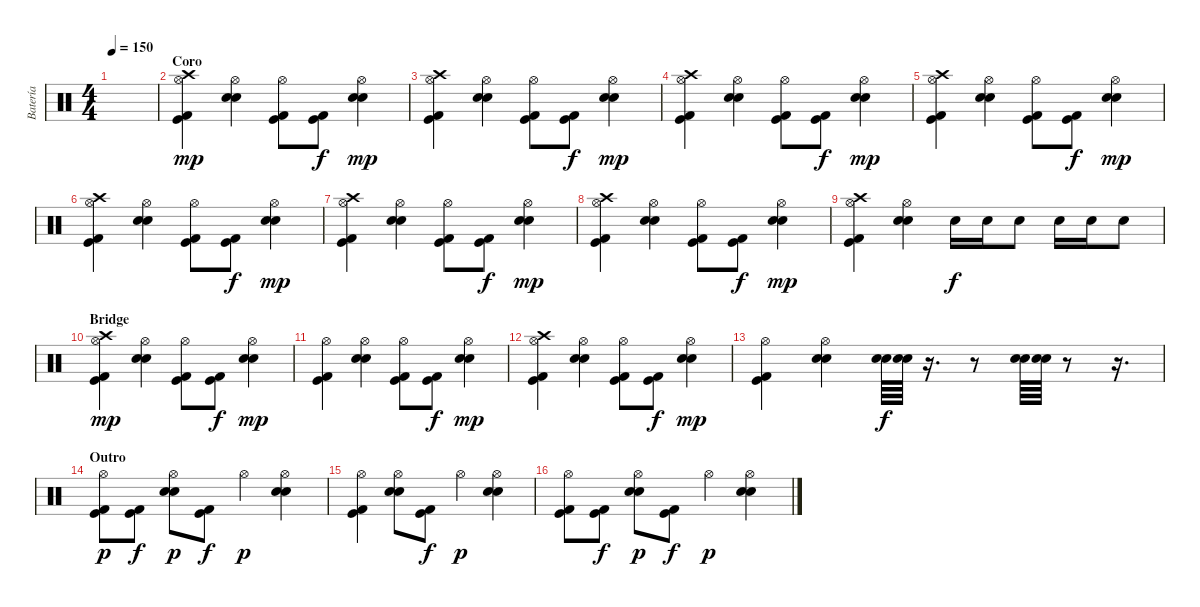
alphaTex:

\track ("Batería" "Batería") {instrument percussion}
\staff {score}
\articulation defaults
\ts (4 4)
\tempo 150
\clef neutral
\ks c
|
\section ("" "Coro")
("Crash high (hit)" "Hi-Hat (open)" "Kick (hit)" "Kick (hit) 2").4{dy mp} ("Hi-Hat (open)" "Snare (hit) 2" "Electric Snare (hit)").4 ("Hi-Hat (open)" "Kick (hit)" "Kick (hit) 2").8 ("Kick (hit) 2" "Kick (hit)").8{dy f} ("Hi-Hat (open)" "Snare (hit) 2" "Electric Snare (hit)").4{dy mp} |
("Crash high (hit)" "Hi-Hat (open)" "Kick (hit)" "Kick (hit) 2").4 ("Hi-Hat (open)" "Snare (hit) 2" "Electric Snare (hit)").4 ("Hi-Hat (open)" "Kick (hit)" "Kick (hit) 2").8 ("Kick (hit) 2" "Kick (hit)").8{dy f} ("Hi-Hat (open)" "Snare (hit) 2" "Electric Snare (hit)").4{dy mp} |
("Crash high (hit)" "Hi-Hat (open)" "Kick (hit)" "Kick (hit) 2").4 ("Hi-Hat (open)" "Snare (hit) 2" "Electric Snare (hit)").4 ("Hi-Hat (open)" "Kick (hit)" "Kick (hit) 2").8 ("Kick (hit)" "Kick (hit) 2").8{dy f} ("Hi-Hat (open)" "Snare (hit) 2" "Electric Snare (hit)").4{dy mp} |
("Crash high (hit)" "Hi-Hat (open)" "Kick (hit)" "Kick (hit) 2").4 ("Hi-Hat (open)" "Snare (hit) 2" "Electric Snare (hit)").4 ("Hi-Hat (open)" "Kick (hit)" "Kick (hit) 2").8 ("Kick (hit)" "Kick (hit) 2").8{dy f} ("Hi-Hat (open)" "Snare (hit) 2" "Electric Snare (hit)").4{dy mp} |
("Crash high (hit)" "Hi-Hat (open)" "Kick (hit)" "Kick (hit) 2").4 ("Hi-Hat (open)" "Snare (hit) 2" "Electric Snare (hit)").4 ("Hi-Hat (open)" "Kick (hit)" "Kick (hit) 2").8 ("Kick (hit) 2" "Kick (hit)").8{dy f} ("Hi-Hat (open)" "Snare (hit) 2" "Electric Snare (hit)").4{dy mp} |
("Crash high (hit)" "Hi-Hat (open)" "Kick (hit)" "Kick (hit) 2").4 ("Hi-Hat (open)" "Snare (hit) 2" "Electric Snare (hit)").4 ("Hi-Hat (open)" "Kick (hit)" "Kick (hit) 2").8 ("Kick (hit) 2" "Kick (hit)").8{dy f} ("Hi-Hat (open)" "Snare (hit) 2" "Electric Snare (hit)").4{dy mp} |
("Crash high (hit)" "Hi-Hat (open)" "Kick (hit)" "Kick (hit) 2").4 ("Hi-Hat (open)" "Snare (hit) 2" "Electric Snare (hit)").4 ("Hi-Hat (open)" "Kick (hit)" "Kick (hit) 2").8 ("Kick (hit)" "Kick (hit) 2").8{dy f} ("Hi-Hat (open)" "Snare (hit) 2" "Electric Snare (hit)").4{dy mp} |
("Crash high (hit)" "Hi-Hat (open)" "Kick (hit)" "Kick (hit) 2").4 ("Hi-Hat (open)" "Snare (hit) 2" "Electric Snare (hit)").4 "Electric Snare (hit)".16{dy f} "Electric Snare (hit)".16 "Electric Snare (hit)".8 "Electric Snare (hit)".16 "Electric Snare (hit)".16 "Electric Snare (hit)".8 |
\section ("" "Bridge")
("Crash high (hit)" "Hi-Hat (open)" "Kick (hit)" "Kick (hit) 2").4{dy mp} ("Hi-Hat (open)" "Snare (hit) 2" "Electric Snare (hit)").4 ("Hi-Hat (open)" "Kick (hit)" "Kick (hit) 2").8 ("Kick (hit) 2" "Kick (hit)").8{dy f} ("Hi-Hat (open)" "Snare (hit) 2" "Electric Snare (hit)").4{dy mp} |
("Hi-Hat (open)" "Kick (hit)" "Kick (hit) 2").4 ("Hi-Hat (open)" "Snare (hit) 2" "Electric Snare (hit)").4 ("Hi-Hat (open)" "Kick (hit)" "Kick (hit) 2").8 ("Kick (hit) 2" "Kick (hit)").8{dy f} ("Hi-Hat (open)" "Snare (hit) 2" "Electric Snare (hit)").4{dy mp} |
("Crash high (hit)" "Hi-Hat (open)" "Kick (hit)" "Kick (hit) 2").4 ("Hi-Hat (open)" "Snare (hit) 2" "Electric Snare (hit)").4 ("Hi-Hat (open)" "Kick (hit)" "Kick (hit) 2").8 ("Kick (hit)" "Kick (hit) 2").8{dy f} ("Hi-Hat (open)" "Snare (hit) 2" "Electric Snare (hit)").4{dy mp} |
("Hi-Hat (open)" "Kick (hit)" "Kick (hit) 2").4 ("Hi-Hat (open)" "Snare (hit) 2" "Electric Snare (hit)").4 ("Snare (hit) 2" "Electric Snare (hit)").64{dy f} ("Snare (hit) 2" "Electric Snare (hit)").64 r.16{d} r.8 ("Snare (hit) 2" "Electric Snare (hit)").64 ("Snare (hit) 2" "Electric Snare (hit)").64 r.8 r.16{d} |
\section ("" "Outro")
("Kick (hit)" "Kick (hit) 2" "Hi-Hat (open)").8{dy p} ("Kick (hit)" "Kick (hit) 2").8{dy f} ("Electric Snare (hit)" "Snare (hit) 2" "Hi-Hat (open)").8{dy p} ("Kick (hit)" "Kick (hit) 2").8{dy f} "Hi-Hat (open)".4{dy p} ("Electric Snare (hit)" "Snare (hit) 2" "Hi-Hat (open)").4 |
("Kick (hit)" "Kick (hit) 2" "Hi-Hat (open)").4 ("Snare (hit) 2" "Electric Snare (hit)" "Hi-Hat (open)").8 ("Kick (hit)" "Kick (hit) 2").8{dy f} "Hi-Hat (open)".4{dy p} ("Electric Snare (hit)" "Snare (hit) 2" "Hi-Hat (open)").4 |
("Kick (hit)" "Kick (hit) 2" "Hi-Hat (open)").8 ("Kick (hit)" "Kick (hit) 2").8{dy f} ("Electric Snare (hit)" "Snare (hit) 2" "Hi-Hat (open)").8{dy p} ("Kick (hit)" "Kick (hit) 2").8{dy f} "Hi-Hat (open)".4{dy p} ("Electric Snare (hit)" "Snare (hit) 2" "Hi-Hat (open)").4
